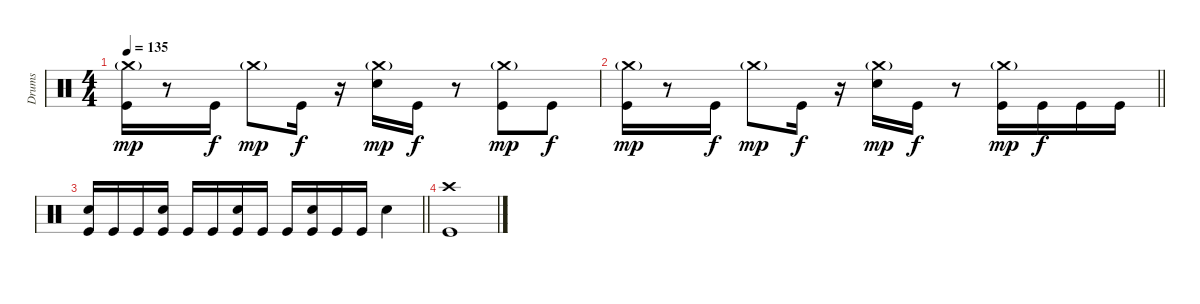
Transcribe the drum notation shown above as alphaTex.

\track ("Drums" "Drums") {instrument percussion}
\staff {score}
\articulation defaults
\ts (4 4)
\tempo 135
\clef neutral
\ks c
("Crash medium (hit)"{g} "Kick (hit)").16{dy mp} r.8 "Kick (hit)".16{dy f} "Crash medium (hit)"{g}.8{dy mp} "Kick (hit)".16{dy f} r.16 ("Crash medium (hit)"{g} "Snare (hit) 2").16{dy mp} "Kick (hit)".16{dy f} r.8 ("Crash medium (hit)"{g} "Kick (hit)").8{dy mp} "Kick (hit)".8{dy f} |
\barLineRight lightlight
("Crash medium (hit)"{g} "Kick (hit)").16{dy mp} r.8 "Kick (hit)".16{dy f} "Crash medium (hit)"{g}.8{dy mp} "Kick (hit)".16{dy f} r.16 ("Crash medium (hit)"{g} "Snare (hit) 2").16{dy mp} "Kick (hit)".16{dy f} r.8 ("Crash medium (hit)"{g} "Kick (hit)").16{dy mp} "Kick (hit)".16{dy f} "Kick (hit)".16 "Kick (hit)".16 |
\barLineRight lightlight
("Snare (hit) 2" "Kick (hit)").16 "Kick (hit)".16 "Kick (hit)".16 ("Snare (hit) 2" "Kick (hit)").16 "Kick (hit)".16 "Kick (hit)".16 ("Snare (hit) 2" "Kick (hit)").16 "Kick (hit)".16 "Kick (hit)".16 ("Snare (hit) 2" "Kick (hit)").16 "Kick (hit)".16 "Kick (hit)".16 "Snare (hit) 2".4 |
\section ("" "")
("Crash high (hit)" "Kick (hit)").1
